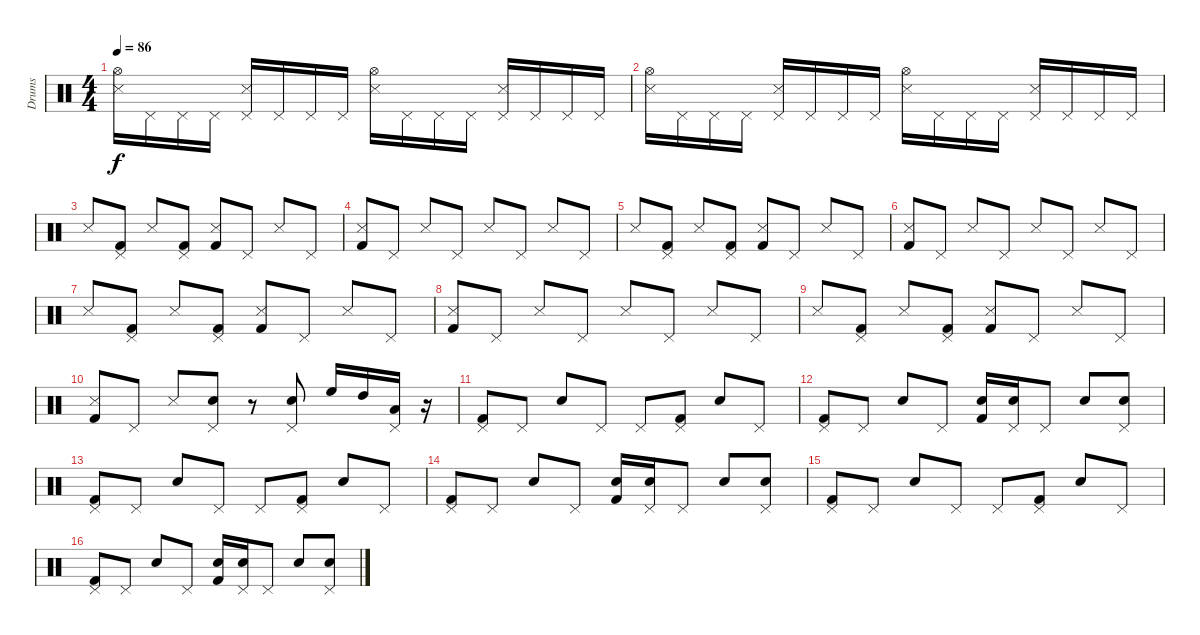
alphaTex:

\track ("Drums" "Drums") {instrument percussion}
\staff {score}
\articulation defaults
\ts (4 4)
\tempo 86
\clef neutral
\ks c
("Snare (side stick) 3" "Hi-Hat (open)").16{dy f} "Pedal Hi-Hat (hit)".16 "Pedal Hi-Hat (hit)".16 "Pedal Hi-Hat (hit)".16 ("Snare (side stick) 3" "Pedal Hi-Hat (hit)").16 "Pedal Hi-Hat (hit)".16 "Pedal Hi-Hat (hit)".16 "Pedal Hi-Hat (hit)".16 ("Snare (side stick) 3" "Hi-Hat (open)").16 "Pedal Hi-Hat (hit)".16 "Pedal Hi-Hat (hit)".16 "Pedal Hi-Hat (hit)".16 ("Snare (side stick) 3" "Pedal Hi-Hat (hit)").16 "Pedal Hi-Hat (hit)".16 "Pedal Hi-Hat (hit)".16 "Pedal Hi-Hat (hit)".16 |
("Snare (side stick) 3" "Hi-Hat (open)").16 "Pedal Hi-Hat (hit)".16 "Pedal Hi-Hat (hit)".16 "Pedal Hi-Hat (hit)".16 ("Snare (side stick) 3" "Pedal Hi-Hat (hit)").16 "Pedal Hi-Hat (hit)".16 "Pedal Hi-Hat (hit)".16 "Pedal Hi-Hat (hit)".16 ("Snare (side stick) 3" "Hi-Hat (open)").16 "Pedal Hi-Hat (hit)".16 "Pedal Hi-Hat (hit)".16 "Pedal Hi-Hat (hit)".16 ("Snare (side stick) 3" "Pedal Hi-Hat (hit)").16 "Pedal Hi-Hat (hit)".16 "Pedal Hi-Hat (hit)".16 "Pedal Hi-Hat (hit)".16 |
"Snare (side stick) 3".8 ("Pedal Hi-Hat (hit)" "Kick (hit) 2").8 "Snare (side stick) 3".8 ("Pedal Hi-Hat (hit)" "Kick (hit) 2").8 ("Snare (side stick) 3" "Kick (hit) 2").8 "Pedal Hi-Hat (hit)".8 "Snare (side stick) 3".8 "Pedal Hi-Hat (hit)".8 |
("Snare (side stick) 3" "Kick (hit) 2").8 "Pedal Hi-Hat (hit)".8 "Snare (side stick) 3".8 "Pedal Hi-Hat (hit)".8 "Snare (side stick) 3".8 "Pedal Hi-Hat (hit)".8 "Snare (side stick) 3".8 "Pedal Hi-Hat (hit)".8 |
"Snare (side stick) 3".8 ("Pedal Hi-Hat (hit)" "Kick (hit) 2").8 "Snare (side stick) 3".8 ("Pedal Hi-Hat (hit)" "Kick (hit) 2").8 ("Snare (side stick) 3" "Kick (hit) 2").8 "Pedal Hi-Hat (hit)".8 "Snare (side stick) 3".8 "Pedal Hi-Hat (hit)".8 |
("Snare (side stick) 3" "Kick (hit) 2").8 "Pedal Hi-Hat (hit)".8 "Snare (side stick) 3".8 "Pedal Hi-Hat (hit)".8 "Snare (side stick) 3".8 "Pedal Hi-Hat (hit)".8 "Snare (side stick) 3".8 "Pedal Hi-Hat (hit)".8 |
"Snare (side stick) 3".8 ("Pedal Hi-Hat (hit)" "Kick (hit) 2").8 "Snare (side stick) 3".8 ("Pedal Hi-Hat (hit)" "Kick (hit) 2").8 ("Snare (side stick) 3" "Kick (hit) 2").8 "Pedal Hi-Hat (hit)".8 "Snare (side stick) 3".8 "Pedal Hi-Hat (hit)".8 |
("Snare (side stick) 3" "Kick (hit) 2").8 "Pedal Hi-Hat (hit)".8 "Snare (side stick) 3".8 "Pedal Hi-Hat (hit)".8 "Snare (side stick) 3".8 "Pedal Hi-Hat (hit)".8 "Snare (side stick) 3".8 "Pedal Hi-Hat (hit)".8 |
"Snare (side stick) 3".8 ("Pedal Hi-Hat (hit)" "Kick (hit) 2").8 "Snare (side stick) 3".8 ("Pedal Hi-Hat (hit)" "Kick (hit) 2").8 ("Snare (side stick) 3" "Kick (hit) 2").8 "Pedal Hi-Hat (hit)".8 "Snare (side stick) 3".8 "Pedal Hi-Hat (hit)".8 |
("Snare (side stick) 3" "Kick (hit) 2").8 "Pedal Hi-Hat (hit)".8 "Snare (side stick) 3".8 ("Pedal Hi-Hat (hit)" "Snare (hit) 2").8 r.8 ("Pedal Hi-Hat (hit)" "Snare (hit) 2").8 "High Floor Tom (hit)".16 "High Tom (hit)".16 ("Pedal Hi-Hat (hit)" "Low Tom (hit)").16 r.16 |
("Pedal Hi-Hat (hit)" "Kick (hit) 2").8 "Pedal Hi-Hat (hit)".8 "Snare (hit) 2".8 "Pedal Hi-Hat (hit)".8 "Pedal Hi-Hat (hit)".8 ("Pedal Hi-Hat (hit)" "Kick (hit) 2").8 "Snare (hit) 2".8 "Pedal Hi-Hat (hit)".8 |
("Pedal Hi-Hat (hit)" "Kick (hit) 2").8 "Pedal Hi-Hat (hit)".8 "Snare (hit) 2".8 "Pedal Hi-Hat (hit)".8 ("Snare (hit) 2" "Kick (hit) 2").16 ("Snare (hit) 2" "Pedal Hi-Hat (hit)").16 "Pedal Hi-Hat (hit)".8 "Snare (hit) 2".8 ("Snare (hit) 2" "Pedal Hi-Hat (hit)").8 |
("Pedal Hi-Hat (hit)" "Kick (hit) 2").8 "Pedal Hi-Hat (hit)".8 "Snare (hit) 2".8 "Pedal Hi-Hat (hit)".8 "Pedal Hi-Hat (hit)".8 ("Pedal Hi-Hat (hit)" "Kick (hit) 2").8 "Snare (hit) 2".8 "Pedal Hi-Hat (hit)".8 |
("Pedal Hi-Hat (hit)" "Kick (hit) 2").8 "Pedal Hi-Hat (hit)".8 "Snare (hit) 2".8 "Pedal Hi-Hat (hit)".8 ("Snare (hit) 2" "Kick (hit) 2").16 ("Snare (hit) 2" "Pedal Hi-Hat (hit)").16 "Pedal Hi-Hat (hit)".8 "Snare (hit) 2".8 ("Snare (hit) 2" "Pedal Hi-Hat (hit)").8 |
("Pedal Hi-Hat (hit)" "Kick (hit) 2").8 "Pedal Hi-Hat (hit)".8 "Snare (hit) 2".8 "Pedal Hi-Hat (hit)".8 "Pedal Hi-Hat (hit)".8 ("Pedal Hi-Hat (hit)" "Kick (hit) 2").8 "Snare (hit) 2".8 "Pedal Hi-Hat (hit)".8 |
("Pedal Hi-Hat (hit)" "Kick (hit) 2").8 "Pedal Hi-Hat (hit)".8 "Snare (hit) 2".8 "Pedal Hi-Hat (hit)".8 ("Snare (hit) 2" "Kick (hit) 2").16 ("Snare (hit) 2" "Pedal Hi-Hat (hit)").16 "Pedal Hi-Hat (hit)".8 "Snare (hit) 2".8 ("Snare (hit) 2" "Pedal Hi-Hat (hit)").8
